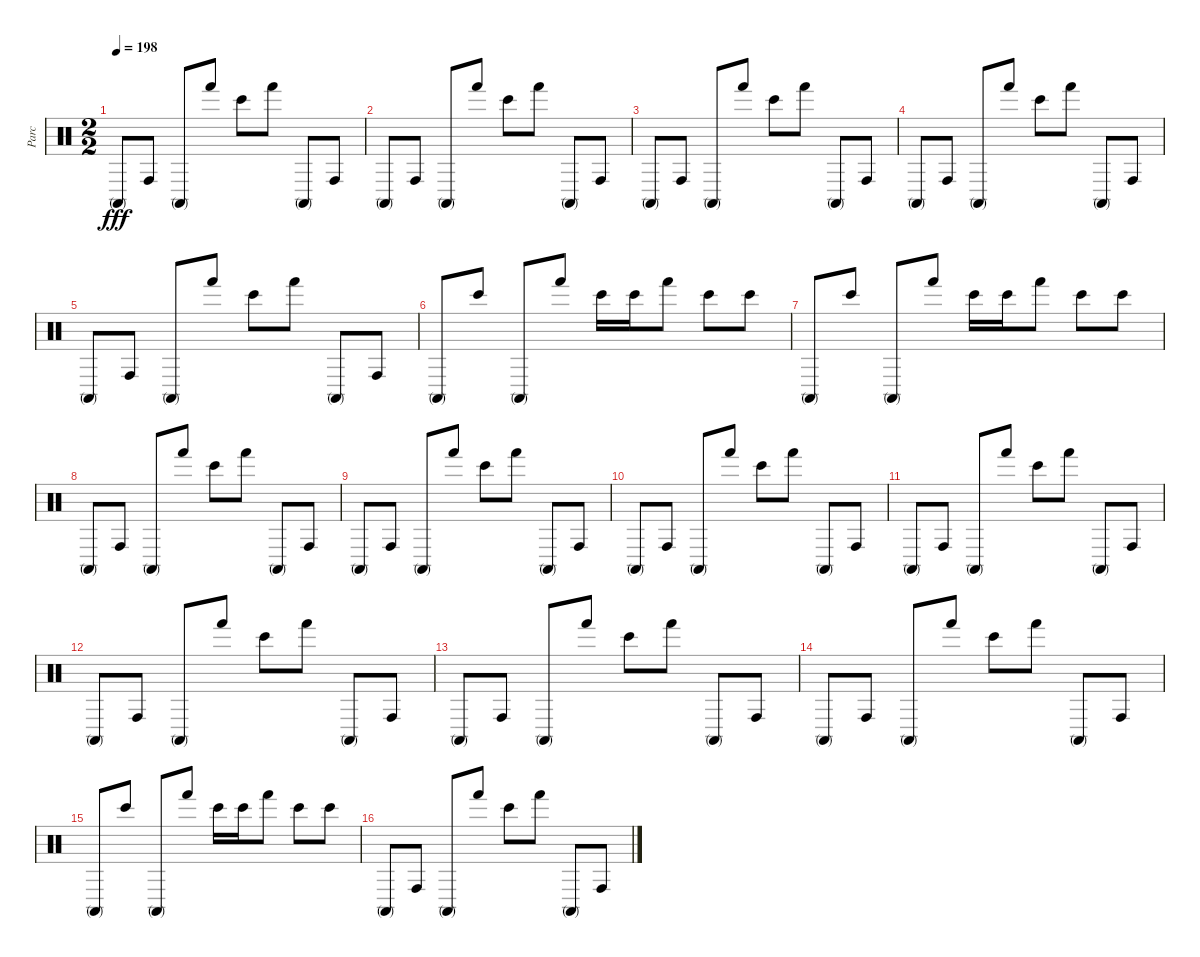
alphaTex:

\track ("Parc" "Parc") {instrument percussion}
\staff {score}
\articulation defaults
\ts (2 2)
\tempo 198
\clef neutral
\ks c "Conga high (mute)".8{dy fff} "Conga high (hit)".8 "Conga high (mute)".8 "Hand (hit)".8 "Bongo High (hit)".8 "Hand (hit)".8 "Conga high (mute)".8 "Conga high (hit)".8
|
"Conga high (mute)".8 "Conga high (hit)".8 "Conga high (mute)".8 "Hand (hit)".8 "Bongo High (hit)".8 "Hand (hit)".8 "Conga high (mute)".8 "Conga high (hit)".8 |
"Conga high (mute)".8 "Conga high (hit)".8 "Conga high (mute)".8 "Hand (hit)".8 "Bongo High (hit)".8 "Hand (hit)".8 "Conga high (mute)".8 "Conga high (hit)".8 |
"Conga high (mute)".8 "Conga high (hit)".8 "Conga high (mute)".8 "Hand (hit)".8 "Bongo High (hit)".8 "Hand (hit)".8 "Conga high (mute)".8 "Conga high (hit)".8 |
"Conga high (mute)".8 "Conga high (hit)".8 "Conga high (mute)".8 "Hand (hit)".8 "Bongo High (hit)".8 "Hand (hit)".8 "Conga high (mute)".8 "Conga high (hit)".8 |
"Conga high (mute)".8 "Bongo High (hit)".8 "Conga high (mute)".8 "Hand (hit)".8 "Bongo High (hit)".16 "Bongo High (hit)".16 "Hand (hit)".8 "Bongo High (hit)".8 "Bongo High (hit)".8 |
"Conga high (mute)".8 "Bongo High (hit)".8 "Conga high (mute)".8 "Hand (hit)".8 "Bongo High (hit)".16 "Bongo High (hit)".16 "Hand (hit)".8 "Bongo High (hit)".8 "Bongo High (hit)".8 |
"Conga high (mute)".8 "Conga high (hit)".8 "Conga high (mute)".8 "Hand (hit)".8 "Bongo High (hit)".8 "Hand (hit)".8 "Conga high (mute)".8 "Conga high (hit)".8 |
"Conga high (mute)".8 "Conga high (hit)".8 "Conga high (mute)".8 "Hand (hit)".8 "Bongo High (hit)".8 "Hand (hit)".8 "Conga high (mute)".8 "Conga high (hit)".8 |
"Conga high (mute)".8 "Conga high (hit)".8 "Conga high (mute)".8 "Hand (hit)".8 "Bongo High (hit)".8 "Hand (hit)".8 "Conga high (mute)".8 "Conga high (hit)".8 |
"Conga high (mute)".8 "Conga high (hit)".8 "Conga high (mute)".8 "Hand (hit)".8 "Bongo High (hit)".8 "Hand (hit)".8 "Conga high (mute)".8 "Conga high (hit)".8 |
"Conga high (mute)".8 "Conga high (hit)".8 "Conga high (mute)".8 "Hand (hit)".8 "Bongo High (hit)".8 "Hand (hit)".8 "Conga high (mute)".8 "Conga high (hit)".8 |
"Conga high (mute)".8 "Conga high (hit)".8 "Conga high (mute)".8 "Hand (hit)".8 "Bongo High (hit)".8 "Hand (hit)".8 "Conga high (mute)".8 "Conga high (hit)".8 |
"Conga high (mute)".8 "Conga high (hit)".8 "Conga high (mute)".8 "Hand (hit)".8 "Bongo High (hit)".8 "Hand (hit)".8 "Conga high (mute)".8 "Conga high (hit)".8 |
"Conga high (mute)".8 "Bongo High (hit)".8 "Conga high (mute)".8 "Hand (hit)".8 "Bongo High (hit)".16 "Bongo High (hit)".16 "Hand (hit)".8 "Bongo High (hit)".8 "Bongo High (hit)".8 |
"Conga high (mute)".8 "Conga high (hit)".8 "Conga high (mute)".8 "Hand (hit)".8 "Bongo High (hit)".8 "Hand (hit)".8 "Conga high (mute)".8 "Conga high (hit)".8
